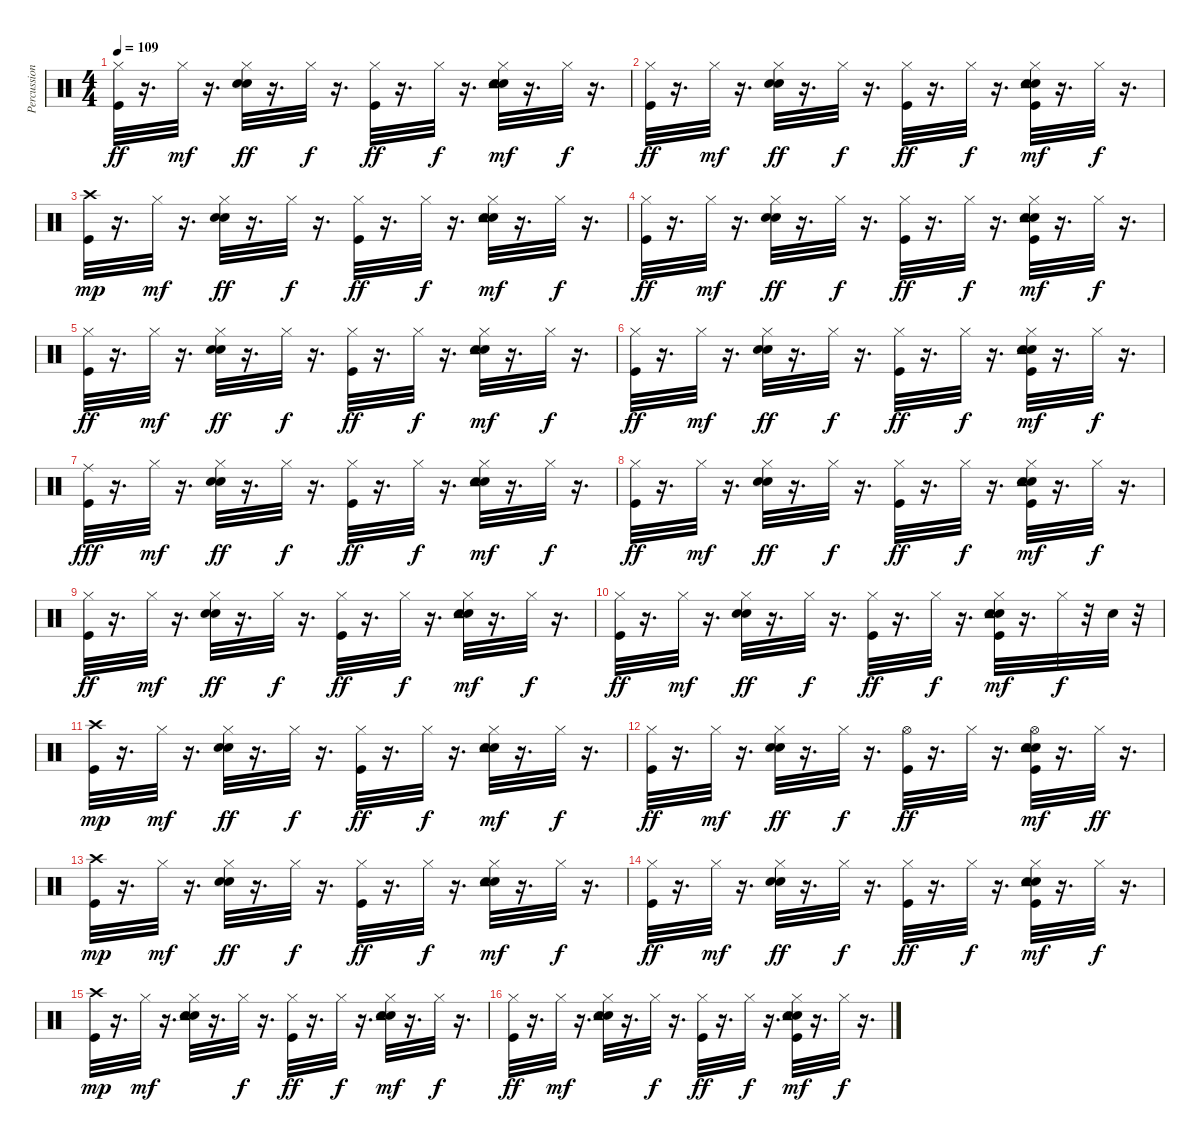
\track ("Percussion" "Percussion") {instrument percussion}
\staff {score}
\articulation defaults
\ts (4 4)
\tempo 109
\clef neutral
\ks c
("Kick (hit)" "Hi-Hat (closed)").32{dy ff} r.16{d} "Hi-Hat (closed)".32{dy mf} r.16{d} ("Snare (hit) 2" "Hand Clap (hit)" "Hi-Hat (closed)").32{dy ff} r.16{d} "Hi-Hat (closed)".32{dy f} r.16{d} ("Kick (hit)" "Hi-Hat (closed)").32{dy ff} r.16{d} "Hi-Hat (closed)".32{dy f} r.16{d} ("Snare (hit) 2" "Hand Clap (hit)" "Hi-Hat (closed)" "Tambourine (hit)").32{dy mf} r.16{d} "Hi-Hat (closed)".32{dy f} r.16{d} |
("Kick (hit)" "Hi-Hat (closed)").32{dy ff} r.16{d} "Hi-Hat (closed)".32{dy mf} r.16{d} ("Snare (hit) 2" "Hand Clap (hit)" "Hi-Hat (closed)").32{dy ff} r.16{d} "Hi-Hat (closed)".32{dy f} r.16{d} ("Kick (hit)" "Hi-Hat (closed)").32{dy ff} r.16{d} "Hi-Hat (closed)".32{dy f} r.16{d} ("Kick (hit)" "Snare (hit) 2" "Hand Clap (hit)" "Hi-Hat (closed)" "Tambourine (hit)").32{dy mf} r.16{d} "Hi-Hat (closed)".32{dy f} r.16{d} |
("Kick (hit)" "Crash high (hit)").32{dy mp} r.16{d} "Hi-Hat (closed)".32{dy mf} r.16{d} ("Snare (hit) 2" "Hand Clap (hit)" "Hi-Hat (closed)").32{dy ff} r.16{d} "Hi-Hat (closed)".32{dy f} r.16{d} ("Kick (hit)" "Hi-Hat (closed)").32{dy ff} r.16{d} "Hi-Hat (closed)".32{dy f} r.16{d} ("Snare (hit) 2" "Hand Clap (hit)" "Hi-Hat (closed)" "Tambourine (hit)").32{dy mf} r.16{d} "Hi-Hat (closed)".32{dy f} r.16{d} |
("Kick (hit)" "Hi-Hat (closed)").32{dy ff} r.16{d} "Hi-Hat (closed)".32{dy mf} r.16{d} ("Snare (hit) 2" "Hand Clap (hit)" "Hi-Hat (closed)").32{dy ff} r.16{d} "Hi-Hat (closed)".32{dy f} r.16{d} ("Kick (hit)" "Hi-Hat (closed)").32{dy ff} r.16{d} "Hi-Hat (closed)".32{dy f} r.16{d} ("Kick (hit)" "Snare (hit) 2" "Hand Clap (hit)" "Hi-Hat (closed)" "Tambourine (hit)").32{dy mf} r.16{d} "Hi-Hat (closed)".32{dy f} r.16{d} |
("Kick (hit)" "Hi-Hat (closed)").32{dy ff} r.16{d} "Hi-Hat (closed)".32{dy mf} r.16{d} ("Snare (hit) 2" "Hand Clap (hit)" "Hi-Hat (closed)").32{dy ff} r.16{d} "Hi-Hat (closed)".32{dy f} r.16{d} ("Kick (hit)" "Hi-Hat (closed)").32{dy ff} r.16{d} "Hi-Hat (closed)".32{dy f} r.16{d} ("Snare (hit) 2" "Hand Clap (hit)" "Hi-Hat (closed)" "Tambourine (hit)").32{dy mf} r.16{d} "Hi-Hat (closed)".32{dy f} r.16{d} |
("Kick (hit)" "Hi-Hat (closed)").32{dy ff} r.16{d} "Hi-Hat (closed)".32{dy mf} r.16{d} ("Snare (hit) 2" "Hand Clap (hit)" "Hi-Hat (closed)").32{dy ff} r.16{d} "Hi-Hat (closed)".32{dy f} r.16{d} ("Kick (hit)" "Hi-Hat (closed)").32{dy ff} r.16{d} "Hi-Hat (closed)".32{dy f} r.16{d} ("Kick (hit)" "Snare (hit) 2" "Hand Clap (hit)" "Hi-Hat (closed)" "Tambourine (hit)").32{dy mf} r.16{d} "Hi-Hat (closed)".32{dy f} r.16{d} |
("Kick (hit)" "Ride (middle)").32{dy fff} r.16{d} "Hi-Hat (closed)".32{dy mf} r.16{d} ("Snare (hit) 2" "Hand Clap (hit)" "Hi-Hat (closed)").32{dy ff} r.16{d} "Hi-Hat (closed)".32{dy f} r.16{d} ("Kick (hit)" "Hi-Hat (closed)").32{dy ff} r.16{d} "Hi-Hat (closed)".32{dy f} r.16{d} ("Snare (hit) 2" "Hand Clap (hit)" "Hi-Hat (closed)" "Tambourine (hit)").32{dy mf} r.16{d} "Hi-Hat (closed)".32{dy f} r.16{d} |
("Kick (hit)" "Hi-Hat (closed)").32{dy ff} r.16{d} "Hi-Hat (closed)".32{dy mf} r.16{d} ("Snare (hit) 2" "Hand Clap (hit)" "Hi-Hat (closed)").32{dy ff} r.16{d} "Hi-Hat (closed)".32{dy f} r.16{d} ("Kick (hit)" "Hi-Hat (closed)").32{dy ff} r.16{d} "Hi-Hat (closed)".32{dy f} r.16{d} ("Kick (hit)" "Snare (hit) 2" "Hand Clap (hit)" "Hi-Hat (closed)" "Tambourine (hit)").32{dy mf} r.16{d} "Hi-Hat (closed)".32{dy f} r.16{d} |
("Kick (hit)" "Hi-Hat (closed)").32{dy ff} r.16{d} "Hi-Hat (closed)".32{dy mf} r.16{d} ("Snare (hit) 2" "Hand Clap (hit)" "Hi-Hat (closed)").32{dy ff} r.16{d} "Hi-Hat (closed)".32{dy f} r.16{d} ("Kick (hit)" "Hi-Hat (closed)").32{dy ff} r.16{d} "Hi-Hat (closed)".32{dy f} r.16{d} ("Snare (hit) 2" "Hand Clap (hit)" "Hi-Hat (closed)" "Tambourine (hit)").32{dy mf} r.16{d} "Hi-Hat (closed)".32{dy f} r.16{d} |
("Kick (hit)" "Hi-Hat (closed)").32{dy ff} r.16{d} "Hi-Hat (closed)".32{dy mf} r.16{d} ("Snare (hit) 2" "Hand Clap (hit)" "Hi-Hat (closed)").32{dy ff} r.16{d} "Hi-Hat (closed)".32{dy f} r.16{d} ("Kick (hit)" "Hi-Hat (closed)").32{dy ff} r.16{d} "Hi-Hat (closed)".32{dy f} r.16{d} ("Kick (hit)" "Snare (hit) 2" "Hand Clap (hit)" "Hi-Hat (closed)" "Tambourine (hit)").32{dy mf} r.16{d} "Hi-Hat (closed)".32{dy f} r.32 "Snare (hit) 2".32 r.32 |
("Kick (hit)" "Crash high (hit)").32{dy mp} r.16{d} "Hi-Hat (closed)".32{dy mf} r.16{d} ("Snare (hit) 2" "Hand Clap (hit)" "Hi-Hat (closed)").32{dy ff} r.16{d} "Hi-Hat (closed)".32{dy f} r.16{d} ("Kick (hit)" "Hi-Hat (closed)").32{dy ff} r.16{d} "Hi-Hat (closed)".32{dy f} r.16{d} ("Snare (hit) 2" "Hand Clap (hit)" "Hi-Hat (closed)" "Tambourine (hit)").32{dy mf} r.16{d} "Hi-Hat (closed)".32{dy f} r.16{d} |
("Kick (hit)" "Hi-Hat (closed)").32{dy ff} r.16{d} "Hi-Hat (closed)".32{dy mf} r.16{d} ("Snare (hit) 2" "Hand Clap (hit)" "Hi-Hat (closed)").32{dy ff} r.16{d} "Hi-Hat (closed)".32{dy f} r.16{d} ("Kick (hit)" "Hi-Hat (open)").32{dy ff} r.16{d} "Hi-Hat (closed)".32 r.16{d} ("Kick (hit)" "Snare (hit) 2" "Hand Clap (hit)" "Hi-Hat (open)" "Tambourine (hit)").32{dy mf} r.16{d} "Hi-Hat (closed)".32{dy ff} r.16{d} |
("Kick (hit)" "Crash high (hit)").32{dy mp} r.16{d} "Hi-Hat (closed)".32{dy mf} r.16{d} ("Snare (hit) 2" "Hand Clap (hit)" "Hi-Hat (closed)").32{dy ff} r.16{d} "Hi-Hat (closed)".32{dy f} r.16{d} ("Kick (hit)" "Hi-Hat (closed)").32{dy ff} r.16{d} "Hi-Hat (closed)".32{dy f} r.16{d} ("Snare (hit) 2" "Hand Clap (hit)" "Hi-Hat (closed)" "Tambourine (hit)").32{dy mf} r.16{d} "Hi-Hat (closed)".32{dy f} r.16{d} |
("Kick (hit)" "Hi-Hat (closed)").32{dy ff} r.16{d} "Hi-Hat (closed)".32{dy mf} r.16{d} ("Snare (hit) 2" "Hand Clap (hit)" "Hi-Hat (closed)").32{dy ff} r.16{d} "Hi-Hat (closed)".32{dy f} r.16{d} ("Kick (hit)" "Hi-Hat (closed)").32{dy ff} r.16{d} "Hi-Hat (closed)".32{dy f} r.16{d} ("Kick (hit)" "Snare (hit) 2" "Hand Clap (hit)" "Hi-Hat (closed)" "Tambourine (hit)").32{dy mf} r.16{d} "Hi-Hat (closed)".32{dy f} r.16{d} |
("Kick (hit)" "Crash high (hit)").32{dy mp} r.16{d} "Hi-Hat (closed)".32{dy mf} r.16{d} ("Snare (hit) 2" "Hand Clap (hit)" "Hi-Hat (closed)" "Tambourine (hit)").32 r.16{d} "Hi-Hat (closed)".32{dy f} r.16{d} ("Kick (hit)" "Hi-Hat (closed)").32{dy ff} r.16{d} "Hi-Hat (closed)".32{dy f} r.16{d} ("Snare (hit) 2" "Hand Clap (hit)" "Hi-Hat (closed)" "Tambourine (hit)").32{dy mf} r.16{d} "Hi-Hat (closed)".32{dy f} r.16{d} |
("Kick (hit)" "Hi-Hat (closed)").32{dy ff} r.16{d} "Hi-Hat (closed)".32{dy mf} r.16{d} ("Snare (hit) 2" "Hand Clap (hit)" "Hi-Hat (closed)" "Tambourine (hit)").32 r.16{d} "Hi-Hat (closed)".32{dy f} r.16{d} ("Kick (hit)" "Hi-Hat (closed)").32{dy ff} r.16{d} "Hi-Hat (closed)".32{dy f} r.16{d} ("Kick (hit)" "Snare (hit) 2" "Hand Clap (hit)" "Hi-Hat (closed)" "Tambourine (hit)").32{dy mf} r.16{d} "Hi-Hat (closed)".32{dy f} r.16{d}
